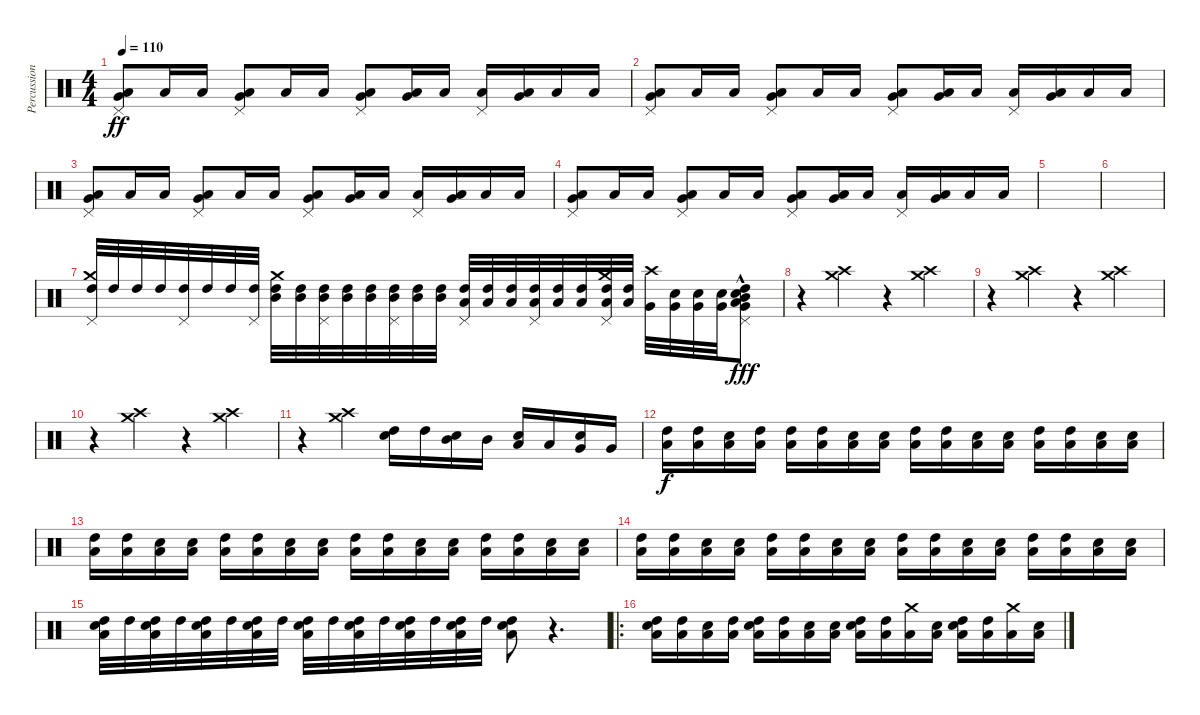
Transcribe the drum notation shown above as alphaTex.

\track ("Percussion" "Percussion") {instrument percussion}
\staff {score}
\articulation defaults
\ts (4 4)
\tempo 110
\clef neutral
\ks c
("Pedal Hi-Hat (hit)" "Low Tom (hit)" "Very Low Tom (hit)").8{dy ff} "Low Tom (hit)".16 "Low Tom (hit)".16 ("Pedal Hi-Hat (hit)" "Low Tom (hit)" "Very Low Tom (hit)").8 "Low Tom (hit)".16 "Low Tom (hit)".16 ("Pedal Hi-Hat (hit)" "Low Tom (hit)" "Very Low Tom (hit)").8 ("Low Tom (hit)" "Very Low Tom (hit)").16 "Low Tom (hit)".16 ("Pedal Hi-Hat (hit)" "Low Tom (hit)").16 ("Low Tom (hit)" "Very Low Tom (hit)").16 "Low Tom (hit)".16 "Low Tom (hit)".16 |
("Pedal Hi-Hat (hit)" "Low Tom (hit)" "Very Low Tom (hit)").8 "Low Tom (hit)".16 "Low Tom (hit)".16 ("Pedal Hi-Hat (hit)" "Low Tom (hit)" "Very Low Tom (hit)").8 "Low Tom (hit)".16 "Low Tom (hit)".16 ("Pedal Hi-Hat (hit)" "Low Tom (hit)" "Very Low Tom (hit)").8 ("Low Tom (hit)" "Very Low Tom (hit)").16 "Low Tom (hit)".16 ("Pedal Hi-Hat (hit)" "Low Tom (hit)").16 ("Low Tom (hit)" "Very Low Tom (hit)").16 "Low Tom (hit)".16 "Low Tom (hit)".16 |
("Pedal Hi-Hat (hit)" "Low Tom (hit)" "Very Low Tom (hit)").8 "Low Tom (hit)".16 "Low Tom (hit)".16 ("Pedal Hi-Hat (hit)" "Low Tom (hit)" "Very Low Tom (hit)").8 "Low Tom (hit)".16 "Low Tom (hit)".16 ("Pedal Hi-Hat (hit)" "Low Tom (hit)" "Very Low Tom (hit)").8 ("Low Tom (hit)" "Very Low Tom (hit)").16 "Low Tom (hit)".16 ("Pedal Hi-Hat (hit)" "Low Tom (hit)").16 ("Low Tom (hit)" "Very Low Tom (hit)").16 "Low Tom (hit)".16 "Low Tom (hit)".16 |
("Pedal Hi-Hat (hit)" "Low Tom (hit)" "Very Low Tom (hit)").8 "Low Tom (hit)".16 "Low Tom (hit)".16 ("Pedal Hi-Hat (hit)" "Low Tom (hit)" "Very Low Tom (hit)").8 "Low Tom (hit)".16 "Low Tom (hit)".16 ("Pedal Hi-Hat (hit)" "Low Tom (hit)" "Very Low Tom (hit)").8 ("Low Tom (hit)" "Very Low Tom (hit)").16 "Low Tom (hit)".16 ("Pedal Hi-Hat (hit)" "Low Tom (hit)").16 ("Low Tom (hit)" "Very Low Tom (hit)").16 "Low Tom (hit)".16 "Low Tom (hit)".16 |
|
|
("Crash medium (hit)" "Pedal Hi-Hat (hit)" "High Tom (hit)").32 "High Tom (hit)".32 "High Tom (hit)".32 "High Tom (hit)".32 ("Pedal Hi-Hat (hit)" "High Tom (hit)").32 "High Tom (hit)".32 "High Tom (hit)".32 ("Pedal Hi-Hat (hit)" "High Tom (hit)").32 ("Crash medium (hit)" "High Tom (hit)" "Mid Tom (hit)").32 ("High Tom (hit)" "Mid Tom (hit)").32 ("Pedal Hi-Hat (hit)" "High Tom (hit)" "Mid Tom (hit)").32 ("High Tom (hit)" "Mid Tom (hit)").32 ("High Tom (hit)" "Mid Tom (hit)").32 ("Pedal Hi-Hat (hit)" "High Tom (hit)" "Mid Tom (hit)").32 ("High Tom (hit)" "Mid Tom (hit)").32 ("High Tom (hit)" "Mid Tom (hit)").32 ("Pedal Hi-Hat (hit)" "High Tom (hit)" "Low Tom (hit)").32 ("High Tom (hit)" "Low Tom (hit)").32 ("High Tom (hit)" "Low Tom (hit)").32 ("Pedal Hi-Hat (hit)" "High Tom (hit)" "Low Tom (hit)").32 ("High Tom (hit)" "Low Tom (hit)").32 ("High Tom (hit)" "Low Tom (hit)").32 ("Crash medium (hit)" "Pedal Hi-Hat (hit)" "High Tom (hit)" "Low Tom (hit)").32 ("High Tom (hit)" "Low Tom (hit)").32 ("Crash high (hit)" "Very Low Tom (hit)").32 ("Snare (hit) 2" "Very Low Tom (hit)").32 ("Snare (hit) 2" "Very Low Tom (hit)").32 ("Snare (hit) 2" "Very Low Tom (hit)").32 ("Pedal Hi-Hat (hit)"{hac} "Snare (hit) 2"{hac} "High Tom (hit)"{hac} "Mid Tom (hit)"{hac} "Low Tom (hit)"{hac} "Very Low Tom (hit)"{hac}).8{dy fff} |
r.4 ("Crash medium (hit)" "Crash high (hit)").4 r.4 ("Crash medium (hit)" "Crash high (hit)").4 |
r.4 ("Crash medium (hit)" "Crash high (hit)").4 r.4 ("Crash medium (hit)" "Crash high (hit)").4 |
r.4 ("Crash medium (hit)" "Crash high (hit)").4 r.4 ("Crash medium (hit)" "Crash high (hit)").4 |
r.4 ("Crash medium (hit)" "Crash high (hit)").4 ("Snare (hit) 2" "High Tom (hit)").16 "High Tom (hit)".16 ("Snare (hit) 2" "Mid Tom (hit)").16 "Mid Tom (hit)".16 ("Snare (hit) 2" "Low Tom (hit)").16 "Low Tom (hit)".16 ("Snare (hit) 2" "Very Low Tom (hit)").16 "Very Low Tom (hit)".16 |
("High Tom (hit)" "Low Tom (hit)").16{dy f} ("High Tom (hit)" "Low Tom (hit)").16 ("Snare (hit) 2" "Low Tom (hit)").16 ("High Tom (hit)" "Low Tom (hit)").16 ("High Tom (hit)" "Low Tom (hit)").16 ("High Tom (hit)" "Low Tom (hit)").16 ("Snare (hit) 2" "Low Tom (hit)").16 ("Snare (hit) 2" "Low Tom (hit)").16 ("High Tom (hit)" "Low Tom (hit)").16 ("High Tom (hit)" "Low Tom (hit)").16 ("Snare (hit) 2" "Low Tom (hit)").16 ("Snare (hit) 2" "Low Tom (hit)").16 ("High Tom (hit)" "Low Tom (hit)").16 ("High Tom (hit)" "Low Tom (hit)").16 ("Snare (hit) 2" "Low Tom (hit)").16 ("Snare (hit) 2" "Low Tom (hit)").16 |
("High Tom (hit)" "Low Tom (hit)").16 ("High Tom (hit)" "Low Tom (hit)").16 ("Snare (hit) 2" "Low Tom (hit)").16 ("Snare (hit) 2" "Low Tom (hit)").16 ("High Tom (hit)" "Low Tom (hit)").16 ("High Tom (hit)" "Low Tom (hit)").16 ("Snare (hit) 2" "Low Tom (hit)").16 ("Snare (hit) 2" "Low Tom (hit)").16 ("High Tom (hit)" "Low Tom (hit)").16 ("High Tom (hit)" "Low Tom (hit)").16 ("Snare (hit) 2" "Low Tom (hit)").16 ("Snare (hit) 2" "Low Tom (hit)").16 ("High Tom (hit)" "Low Tom (hit)").16 ("High Tom (hit)" "Low Tom (hit)").16 ("Snare (hit) 2" "Low Tom (hit)").16 ("Snare (hit) 2" "Low Tom (hit)").16 |
("High Tom (hit)" "Low Tom (hit)").16 ("High Tom (hit)" "Low Tom (hit)").16 ("Snare (hit) 2" "Low Tom (hit)").16 ("Snare (hit) 2" "Low Tom (hit)").16 ("High Tom (hit)" "Low Tom (hit)").16 ("High Tom (hit)" "Low Tom (hit)").16 ("Snare (hit) 2" "Low Tom (hit)").16 ("Snare (hit) 2" "Low Tom (hit)").16 ("High Tom (hit)" "Low Tom (hit)").16 ("High Tom (hit)" "Low Tom (hit)").16 ("Snare (hit) 2" "Low Tom (hit)").16 ("Snare (hit) 2" "Low Tom (hit)").16 ("High Tom (hit)" "Low Tom (hit)").16 ("High Tom (hit)" "Low Tom (hit)").16 ("Snare (hit) 2" "Low Tom (hit)").16 ("Snare (hit) 2" "Low Tom (hit)").16 |
("Snare (hit) 2" "Low Tom (hit)" "High Tom (hit)").32 "High Tom (hit)".32 ("Snare (hit) 2" "Low Tom (hit)" "High Tom (hit)").32 "High Tom (hit)".32 ("Snare (hit) 2" "Low Tom (hit)" "High Tom (hit)").32 "High Tom (hit)".32 ("Snare (hit) 2" "Low Tom (hit)" "High Tom (hit)").32 "High Tom (hit)".32 ("Snare (hit) 2" "Low Tom (hit)" "High Tom (hit)").32 "High Tom (hit)".32 ("Snare (hit) 2" "Low Tom (hit)" "High Tom (hit)").32 "High Tom (hit)".32 ("Snare (hit) 2" "Low Tom (hit)" "High Tom (hit)").32 "High Tom (hit)".32 ("Snare (hit) 2" "Low Tom (hit)" "High Tom (hit)").32 "High Tom (hit)".32 ("Snare (hit) 2" "Low Tom (hit)" "High Tom (hit)").8 r.4{d} |
\ro
("Snare (hit) 2" "High Tom (hit)" "Low Tom (hit)").16 ("High Tom (hit)" "Low Tom (hit)").16 ("Snare (hit) 2" "Low Tom (hit)").16 ("High Tom (hit)" "Low Tom (hit)").16 ("Snare (hit) 2" "High Tom (hit)" "Low Tom (hit)").16 ("High Tom (hit)" "Low Tom (hit)").16 ("Snare (hit) 2" "Low Tom (hit)").16 ("Snare (hit) 2" "Low Tom (hit)").16 ("Snare (hit) 2" "High Tom (hit)" "Low Tom (hit)").16 ("High Tom (hit)" "Low Tom (hit)").16 ("Crash medium (hit)" "Low Tom (hit)").16 ("Snare (hit) 2" "Low Tom (hit)").16 ("Snare (hit) 2" "High Tom (hit)" "Low Tom (hit)").16 ("High Tom (hit)" "Low Tom (hit)").16 ("Crash medium (hit)" "Low Tom (hit)").16 ("Snare (hit) 2" "Low Tom (hit)").16
